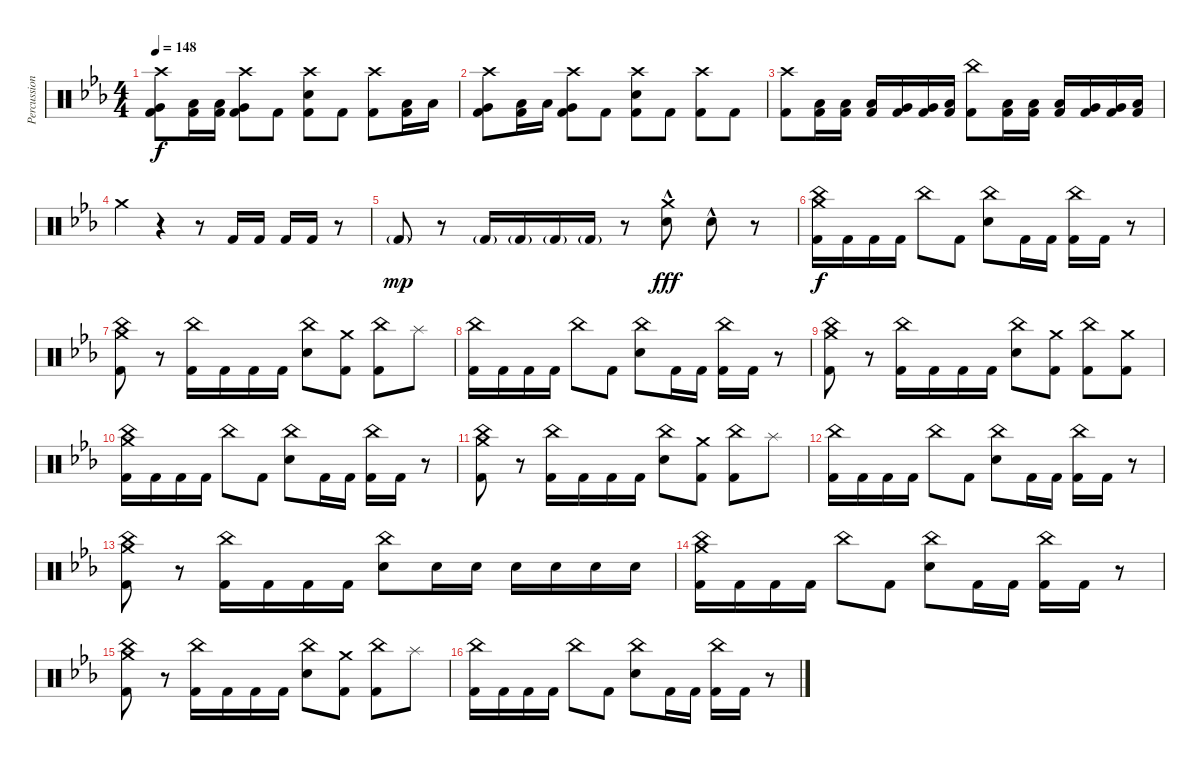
\track ("Percussion" "Percussion") {instrument percussion}
\staff {score}
\articulation defaults
\ts (4 4)
\tempo 148
\clef neutral
\ks cminor
("Crash high (hit)" "Very Low Tom (hit)" "Kick (hit) 2").8{dy f} ("Low Tom (hit)" "Kick (hit) 2").16 ("Low Tom (hit)" "Kick (hit) 2").16 ("Crash high (hit)" "Very Low Tom (hit)" "Kick (hit) 2").8 "Kick (hit) 2".8 ("Crash high (hit)" "Electric Snare (hit)" "Kick (hit) 2").8 "Kick (hit) 2".8 ("Crash high (hit)" "Kick (hit) 2").8 ("Low Tom (hit)" "Kick (hit) 2").16 "Low Tom (hit)".16 |
("Crash high (hit)" "Very Low Tom (hit)" "Kick (hit) 2").8 ("Low Tom (hit)" "Kick (hit) 2").16 "Low Tom (hit)".16 ("Crash high (hit)" "Very Low Tom (hit)" "Kick (hit) 2").8 "Kick (hit) 2".8 ("Crash high (hit)" "Electric Snare (hit)" "Kick (hit) 2").8 "Kick (hit) 2".8 ("Crash high (hit)" "Kick (hit) 2").8 "Kick (hit) 2".8 |
("Crash high (hit)" "Kick (hit) 2").8 ("Low Tom (hit)" "Kick (hit) 2").16 ("Low Tom (hit)" "Kick (hit) 2").16 ("Low Tom (hit)" "Kick (hit) 2").16 ("Very Low Tom (hit)" "Kick (hit) 2").16 ("Very Low Tom (hit)" "Kick (hit) 2").16 ("Low Floor Tom (hit)" "Kick (hit) 2").16 ("China (hit)" "Kick (hit) 2").8 ("Low Tom (hit)" "Kick (hit) 2").16 ("Low Tom (hit)" "Kick (hit) 2").16 ("Low Tom (hit)" "Kick (hit) 2").16 ("Very Low Tom (hit)" "Kick (hit) 2").16 ("Very Low Tom (hit)" "Kick (hit) 2").16 ("Low Floor Tom (hit)" "Kick (hit) 2").16 |
"Crash medium (hit)".4 r.4 r.8 "Kick (hit) 2".16 "Kick (hit) 2".16 "Kick (hit) 2".16 "Kick (hit) 2".16 r.8 |
"Kick (hit) 2"{g}.8{dy mp} r.8 "Kick (hit) 2"{g}.16 "Kick (hit) 2"{g}.16 "Kick (hit) 2"{g}.16 "Kick (hit) 2"{g}.16 r.8 ("Crash medium (hit)" "Electric Snare (hit)"{hac}).8{dy fff} "Electric Snare (hit)"{hac}.8 r.8 |
("Crash medium (hit)" "China (hit)" "Kick (hit) 2").16{dy f} "Kick (hit) 2".16 "Kick (hit) 2".16 "Kick (hit) 2".16 "China (hit)".8 "Kick (hit) 2".8 ("China (hit)" "Electric Snare (hit)").8 "Kick (hit) 2".16 "Kick (hit) 2".16 ("China (hit)" "Kick (hit) 2").16 "Kick (hit) 2".16 r.8 |
("Crash medium (hit)" "China (hit)" "Kick (hit) 2").8 r.8 ("China (hit)" "Kick (hit) 2").16 "Kick (hit) 2".16 "Kick (hit) 2".16 "Kick (hit) 2".16 ("China (hit)" "Electric Snare (hit)").8 ("Crash medium (hit)" "Kick (hit) 2").8 ("China (hit)" "Kick (hit) 2").8 "Splash (hit)".8 |
("China (hit)" "Kick (hit) 2").16 "Kick (hit) 2".16 "Kick (hit) 2".16 "Kick (hit) 2".16 "China (hit)".8 "Kick (hit) 2".8 ("China (hit)" "Electric Snare (hit)").8 "Kick (hit) 2".16 "Kick (hit) 2".16 ("China (hit)" "Kick (hit) 2").16 "Kick (hit) 2".16 r.8 |
("Crash medium (hit)" "China (hit)" "Kick (hit) 2").8 r.8 ("China (hit)" "Kick (hit) 2").16 "Kick (hit) 2".16 "Kick (hit) 2".16 "Kick (hit) 2".16 ("China (hit)" "Electric Snare (hit)").8 ("Crash medium (hit)" "Kick (hit) 2").8 ("China (hit)" "Kick (hit) 2").8 ("Crash medium (hit)" "Kick (hit) 2").8 |
("Crash medium (hit)" "China (hit)" "Kick (hit) 2").16 "Kick (hit) 2".16 "Kick (hit) 2".16 "Kick (hit) 2".16 "China (hit)".8 "Kick (hit) 2".8 ("China (hit)" "Electric Snare (hit)").8 "Kick (hit) 2".16 "Kick (hit) 2".16 ("China (hit)" "Kick (hit) 2").16 "Kick (hit) 2".16 r.8 |
("Crash medium (hit)" "China (hit)" "Kick (hit) 2").8 r.8 ("China (hit)" "Kick (hit) 2").16 "Kick (hit) 2".16 "Kick (hit) 2".16 "Kick (hit) 2".16 ("China (hit)" "Electric Snare (hit)").8 ("Crash medium (hit)" "Kick (hit) 2").8 ("China (hit)" "Kick (hit) 2").8 "Splash (hit)".8 |
("China (hit)" "Kick (hit) 2").16 "Kick (hit) 2".16 "Kick (hit) 2".16 "Kick (hit) 2".16 "China (hit)".8 "Kick (hit) 2".8 ("China (hit)" "Electric Snare (hit)").8 "Kick (hit) 2".16 "Kick (hit) 2".16 ("China (hit)" "Kick (hit) 2").16 "Kick (hit) 2".16 r.8 |
("Crash medium (hit)" "China (hit)" "Kick (hit) 2").8 r.8 ("China (hit)" "Kick (hit) 2").16 "Kick (hit) 2".16 "Kick (hit) 2".16 "Kick (hit) 2".16 ("China (hit)" "Electric Snare (hit)").8 "Electric Snare (hit)".16 "Electric Snare (hit)".16 "Electric Snare (hit)".16 "Electric Snare (hit)".16 "Electric Snare (hit)".16 "Electric Snare (hit)".16 |
("Crash medium (hit)" "China (hit)" "Kick (hit) 2").16 "Kick (hit) 2".16 "Kick (hit) 2".16 "Kick (hit) 2".16 "China (hit)".8 "Kick (hit) 2".8 ("China (hit)" "Electric Snare (hit)").8 "Kick (hit) 2".16 "Kick (hit) 2".16 ("China (hit)" "Kick (hit) 2").16 "Kick (hit) 2".16 r.8 |
("Crash medium (hit)" "China (hit)" "Kick (hit) 2").8 r.8 ("China (hit)" "Kick (hit) 2").16 "Kick (hit) 2".16 "Kick (hit) 2".16 "Kick (hit) 2".16 ("China (hit)" "Electric Snare (hit)").8 ("Crash medium (hit)" "Kick (hit) 2").8 ("China (hit)" "Kick (hit) 2").8 "Splash (hit)".8 |
("China (hit)" "Kick (hit) 2").16 "Kick (hit) 2".16 "Kick (hit) 2".16 "Kick (hit) 2".16 "China (hit)".8 "Kick (hit) 2".8 ("China (hit)" "Electric Snare (hit)").8 "Kick (hit) 2".16 "Kick (hit) 2".16 ("China (hit)" "Kick (hit) 2").16 "Kick (hit) 2".16 r.8
